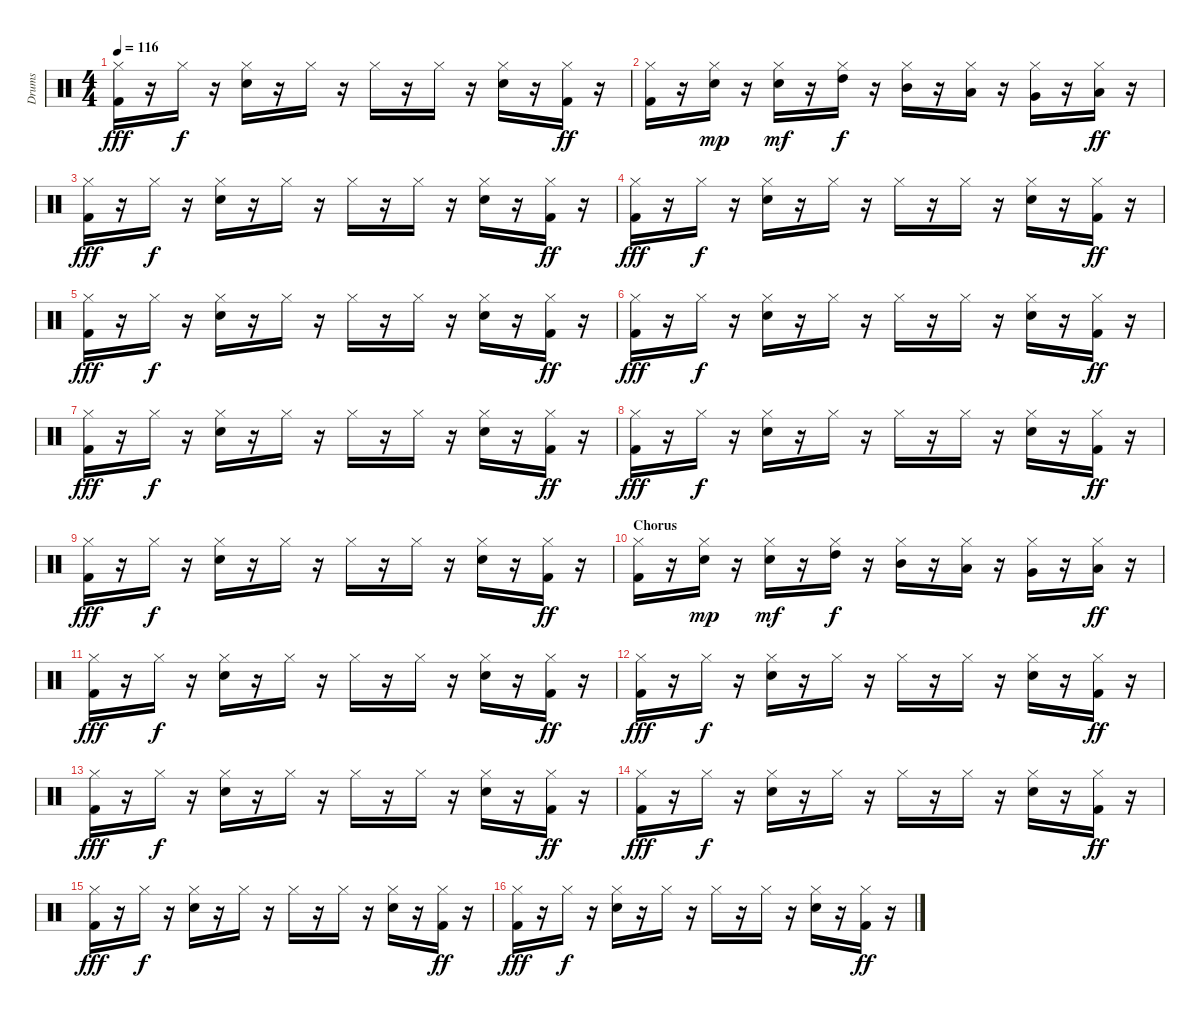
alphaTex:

\track ("Drums" "Drums") {instrument percussion}
\staff {score}
\articulation defaults
\ts (4 4)
\tempo 116
\clef neutral
\ks c
("Hi-Hat (closed)" "Kick (hit) 2").16{dy fff} r.16 "Hi-Hat (closed)".16{dy f} r.16 ("Hi-Hat (closed)" "Electric Snare (hit)").16 r.16 "Hi-Hat (closed)".16 r.16 "Hi-Hat (closed)".16 r.16 "Hi-Hat (closed)".16 r.16 ("Hi-Hat (closed)" "Electric Snare (hit)").16 r.16 ("Hi-Hat (closed)" "Kick (hit) 2").16{dy ff} r.16 |
("Hi-Hat (closed)" "Kick (hit) 2").16 r.16 ("Hi-Hat (closed)" "Electric Snare (hit)").16{dy mp} r.16 ("Hi-Hat (closed)" "Snare (hit) 2").16{dy mf} r.16 ("Hi-Hat (closed)" "High Tom (hit)").16{dy f} r.16 ("Hi-Hat (closed)" "Mid Tom (hit)").16 r.16 ("Hi-Hat (closed)" "Low Tom (hit)").16 r.16 ("Hi-Hat (closed)" "Very Low Tom (hit)").16 r.16 ("Hi-Hat (closed)" "Low Floor Tom (hit)").16{dy ff} r.16 |
("Hi-Hat (closed)" "Kick (hit) 2").16{dy fff} r.16 "Hi-Hat (closed)".16{dy f} r.16 ("Hi-Hat (closed)" "Electric Snare (hit)").16 r.16 "Hi-Hat (closed)".16 r.16 "Hi-Hat (closed)".16 r.16 "Hi-Hat (closed)".16 r.16 ("Hi-Hat (closed)" "Electric Snare (hit)").16 r.16 ("Hi-Hat (closed)" "Kick (hit) 2").16{dy ff} r.16 |
("Hi-Hat (closed)" "Kick (hit) 2").16{dy fff} r.16 "Hi-Hat (closed)".16{dy f} r.16 ("Hi-Hat (closed)" "Electric Snare (hit)").16 r.16 "Hi-Hat (closed)".16 r.16 "Hi-Hat (closed)".16 r.16 "Hi-Hat (closed)".16 r.16 ("Hi-Hat (closed)" "Electric Snare (hit)").16 r.16 ("Hi-Hat (closed)" "Kick (hit) 2").16{dy ff} r.16 |
("Hi-Hat (closed)" "Kick (hit) 2").16{dy fff} r.16 "Hi-Hat (closed)".16{dy f} r.16 ("Hi-Hat (closed)" "Electric Snare (hit)").16 r.16 "Hi-Hat (closed)".16 r.16 "Hi-Hat (closed)".16 r.16 "Hi-Hat (closed)".16 r.16 ("Hi-Hat (closed)" "Electric Snare (hit)").16 r.16 ("Hi-Hat (closed)" "Kick (hit) 2").16{dy ff} r.16 |
("Hi-Hat (closed)" "Kick (hit) 2").16{dy fff} r.16 "Hi-Hat (closed)".16{dy f} r.16 ("Hi-Hat (closed)" "Electric Snare (hit)").16 r.16 "Hi-Hat (closed)".16 r.16 "Hi-Hat (closed)".16 r.16 "Hi-Hat (closed)".16 r.16 ("Hi-Hat (closed)" "Electric Snare (hit)").16 r.16 ("Hi-Hat (closed)" "Kick (hit) 2").16{dy ff} r.16 |
("Hi-Hat (closed)" "Kick (hit) 2").16{dy fff} r.16 "Hi-Hat (closed)".16{dy f} r.16 ("Hi-Hat (closed)" "Electric Snare (hit)").16 r.16 "Hi-Hat (closed)".16 r.16 "Hi-Hat (closed)".16 r.16 "Hi-Hat (closed)".16 r.16 ("Hi-Hat (closed)" "Electric Snare (hit)").16 r.16 ("Hi-Hat (closed)" "Kick (hit) 2").16{dy ff} r.16 |
("Hi-Hat (closed)" "Kick (hit) 2").16{dy fff} r.16 "Hi-Hat (closed)".16{dy f} r.16 ("Hi-Hat (closed)" "Electric Snare (hit)").16 r.16 "Hi-Hat (closed)".16 r.16 "Hi-Hat (closed)".16 r.16 "Hi-Hat (closed)".16 r.16 ("Hi-Hat (closed)" "Electric Snare (hit)").16 r.16 ("Hi-Hat (closed)" "Kick (hit) 2").16{dy ff} r.16 |
("Hi-Hat (closed)" "Kick (hit) 2").16{dy fff} r.16 "Hi-Hat (closed)".16{dy f} r.16 ("Hi-Hat (closed)" "Electric Snare (hit)").16 r.16 "Hi-Hat (closed)".16 r.16 "Hi-Hat (closed)".16 r.16 "Hi-Hat (closed)".16 r.16 ("Hi-Hat (closed)" "Electric Snare (hit)").16 r.16 ("Hi-Hat (closed)" "Kick (hit) 2").16{dy ff} r.16 |
\section ("" "Chorus")
("Hi-Hat (closed)" "Kick (hit) 2").16 r.16 ("Hi-Hat (closed)" "Electric Snare (hit)").16{dy mp} r.16 ("Hi-Hat (closed)" "Snare (hit) 2").16{dy mf} r.16 ("Hi-Hat (closed)" "High Tom (hit)").16{dy f} r.16 ("Hi-Hat (closed)" "Mid Tom (hit)").16 r.16 ("Hi-Hat (closed)" "Low Tom (hit)").16 r.16 ("Hi-Hat (closed)" "Very Low Tom (hit)").16 r.16 ("Hi-Hat (closed)" "Low Floor Tom (hit)").16{dy ff} r.16 |
("Hi-Hat (closed)" "Kick (hit) 2").16{dy fff} r.16 "Hi-Hat (closed)".16{dy f} r.16 ("Hi-Hat (closed)" "Electric Snare (hit)").16 r.16 "Hi-Hat (closed)".16 r.16 "Hi-Hat (closed)".16 r.16 "Hi-Hat (closed)".16 r.16 ("Hi-Hat (closed)" "Electric Snare (hit)").16 r.16 ("Hi-Hat (closed)" "Kick (hit) 2").16{dy ff} r.16 |
("Hi-Hat (closed)" "Kick (hit) 2").16{dy fff} r.16 "Hi-Hat (closed)".16{dy f} r.16 ("Hi-Hat (closed)" "Electric Snare (hit)").16 r.16 "Hi-Hat (closed)".16 r.16 "Hi-Hat (closed)".16 r.16 "Hi-Hat (closed)".16 r.16 ("Hi-Hat (closed)" "Electric Snare (hit)").16 r.16 ("Hi-Hat (closed)" "Kick (hit) 2").16{dy ff} r.16 |
("Hi-Hat (closed)" "Kick (hit) 2").16{dy fff} r.16 "Hi-Hat (closed)".16{dy f} r.16 ("Hi-Hat (closed)" "Electric Snare (hit)").16 r.16 "Hi-Hat (closed)".16 r.16 "Hi-Hat (closed)".16 r.16 "Hi-Hat (closed)".16 r.16 ("Hi-Hat (closed)" "Electric Snare (hit)").16 r.16 ("Hi-Hat (closed)" "Kick (hit) 2").16{dy ff} r.16 |
("Hi-Hat (closed)" "Kick (hit) 2").16{dy fff} r.16 "Hi-Hat (closed)".16{dy f} r.16 ("Hi-Hat (closed)" "Electric Snare (hit)").16 r.16 "Hi-Hat (closed)".16 r.16 "Hi-Hat (closed)".16 r.16 "Hi-Hat (closed)".16 r.16 ("Hi-Hat (closed)" "Electric Snare (hit)").16 r.16 ("Hi-Hat (closed)" "Kick (hit) 2").16{dy ff} r.16 |
("Hi-Hat (closed)" "Kick (hit) 2").16{dy fff} r.16 "Hi-Hat (closed)".16{dy f} r.16 ("Hi-Hat (closed)" "Electric Snare (hit)").16 r.16 "Hi-Hat (closed)".16 r.16 "Hi-Hat (closed)".16 r.16 "Hi-Hat (closed)".16 r.16 ("Hi-Hat (closed)" "Electric Snare (hit)").16 r.16 ("Hi-Hat (closed)" "Kick (hit) 2").16{dy ff} r.16 |
("Hi-Hat (closed)" "Kick (hit) 2").16{dy fff} r.16 "Hi-Hat (closed)".16{dy f} r.16 ("Hi-Hat (closed)" "Electric Snare (hit)").16 r.16 "Hi-Hat (closed)".16 r.16 "Hi-Hat (closed)".16 r.16 "Hi-Hat (closed)".16 r.16 ("Hi-Hat (closed)" "Electric Snare (hit)").16 r.16 ("Hi-Hat (closed)" "Kick (hit) 2").16{dy ff} r.16
